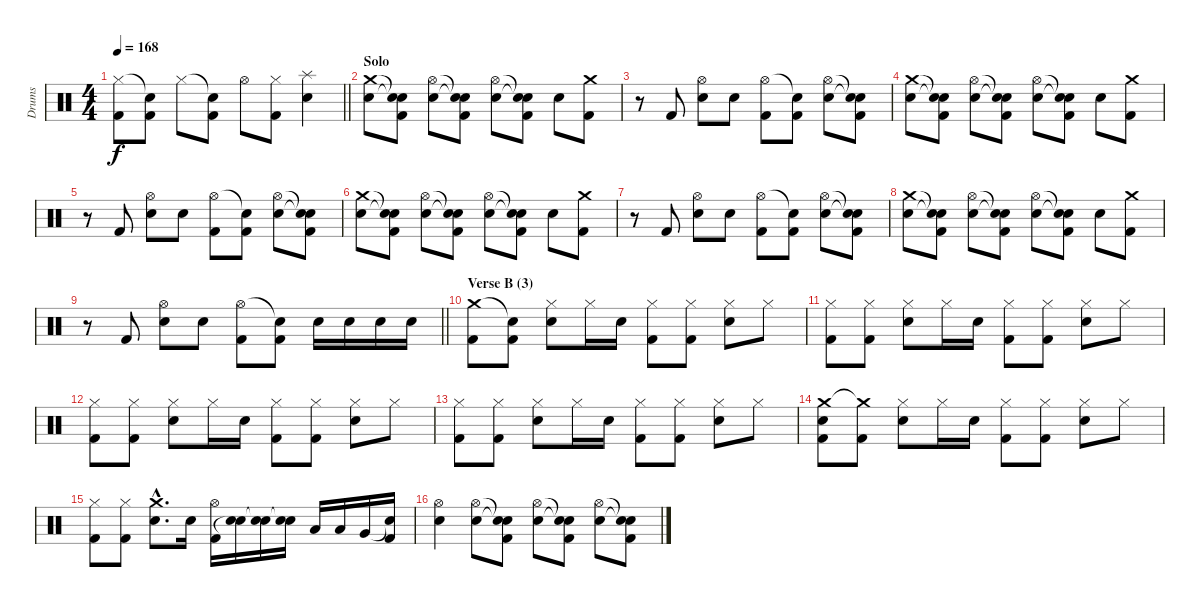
\track ("Drums" "Drums") {instrument percussion}
\staff {score}
\articulation defaults
\ts (4 4)
\tempo 168
\clef neutral
\barLineRight lightlight
\ks c
("Hi-Hat (closed)" "Kick (hit) 2").8{dy f} ("Snare (hit)"{t} "Kick (hit) 2").8 "Hi-Hat (closed)".8 ("Snare (hit)"{t} "Kick (hit) 2").8 "Hi-Hat (open)".8 ("Hi-Hat (closed)" "Kick (hit) 2").8 ("Splash (hit)" "Electric Snare (hit)").4 |
\section ("" "Solo")
("Crash medium (hit)" "Electric Snare (hit)").8 ("Snare (hit)"{t} "Snare (hit)"{t} "Kick (hit) 2").8 ("Hi-Hat (open)" "Electric Snare (hit)").8 ("Snare (hit)"{t} "Snare (hit)"{t} "Kick (hit) 2").8 ("Hi-Hat (open)" "Electric Snare (hit)").8 ("Snare (hit)"{t} "Snare (hit)"{t} "Kick (hit) 2").8 "Electric Snare (hit)".8 ("Crash medium (hit)" "Kick (hit) 2").8 |
r.8 "Kick (hit) 2".8 ("Hi-Hat (open)" "Electric Snare (hit)").8 "Electric Snare (hit)".8 ("Hi-Hat (open)" "Kick (hit) 2").8 ("Snare (hit)"{t} "Kick (hit) 2").8 ("Hi-Hat (open)" "Electric Snare (hit)").8 ("Snare (hit)"{t} "Snare (hit)"{t} "Kick (hit) 2").8 |
("Crash medium (hit)" "Electric Snare (hit)").8 ("Snare (hit)"{t} "Snare (hit)"{t} "Kick (hit) 2").8 ("Hi-Hat (open)" "Electric Snare (hit)").8 ("Snare (hit)"{t} "Snare (hit)"{t} "Kick (hit) 2").8 ("Hi-Hat (open)" "Electric Snare (hit)").8 ("Snare (hit)"{t} "Snare (hit)"{t} "Kick (hit) 2").8 "Electric Snare (hit)".8 ("Crash medium (hit)" "Kick (hit) 2").8 |
r.8 "Kick (hit) 2".8 ("Hi-Hat (open)" "Electric Snare (hit)").8 "Electric Snare (hit)".8 ("Hi-Hat (open)" "Kick (hit) 2").8 ("Snare (hit)"{t} "Kick (hit) 2").8 ("Hi-Hat (open)" "Electric Snare (hit)").8 ("Snare (hit)"{t} "Snare (hit)"{t} "Kick (hit) 2").8 |
("Crash medium (hit)" "Electric Snare (hit)").8 ("Snare (hit)"{t} "Snare (hit)"{t} "Kick (hit) 2").8 ("Hi-Hat (open)" "Electric Snare (hit)").8 ("Snare (hit)"{t} "Snare (hit)"{t} "Kick (hit) 2").8 ("Hi-Hat (open)" "Electric Snare (hit)").8 ("Snare (hit)"{t} "Snare (hit)"{t} "Kick (hit) 2").8 "Electric Snare (hit)".8 ("Crash medium (hit)" "Kick (hit) 2").8 |
r.8 "Kick (hit) 2".8 ("Hi-Hat (open)" "Electric Snare (hit)").8 "Electric Snare (hit)".8 ("Hi-Hat (open)" "Kick (hit) 2").8 ("Snare (hit)"{t} "Kick (hit) 2").8 ("Hi-Hat (open)" "Electric Snare (hit)").8 ("Snare (hit)"{t} "Snare (hit)"{t} "Kick (hit) 2").8 |
("Crash medium (hit)" "Electric Snare (hit)").8 ("Snare (hit)"{t} "Snare (hit)"{t} "Kick (hit) 2").8 ("Hi-Hat (open)" "Electric Snare (hit)").8 ("Snare (hit)"{t} "Snare (hit)"{t} "Kick (hit) 2").8 ("Hi-Hat (open)" "Electric Snare (hit)").8 ("Snare (hit)"{t} "Snare (hit)"{t} "Kick (hit) 2").8 "Electric Snare (hit)".8 ("Crash medium (hit)" "Kick (hit) 2").8 |
\barLineRight lightlight
r.8 "Kick (hit) 2".8 ("Hi-Hat (open)" "Electric Snare (hit)").8 "Electric Snare (hit)".8 ("Hi-Hat (open)" "Kick (hit) 2").8 ("Snare (hit)"{t} "Kick (hit) 2").8 "Electric Snare (hit)".16 "Electric Snare (hit)".16 "Electric Snare (hit)".16 "Electric Snare (hit)".16 |
\section ("" "Verse B (3)")
("Crash medium (hit)" "Kick (hit) 2").8 ("Snare (hit)"{t} "Kick (hit) 2").8 ("Hi-Hat (closed)" "Electric Snare (hit)").8 "Hi-Hat (closed)".16 "Electric Snare (hit)".16 ("Hi-Hat (closed)" "Kick (hit) 2").8 ("Hi-Hat (closed)" "Kick (hit) 2").8 ("Hi-Hat (closed)" "Electric Snare (hit)").8 "Hi-Hat (closed)".8 |
("Hi-Hat (closed)" "Kick (hit) 2").8 ("Hi-Hat (closed)" "Kick (hit) 2").8 ("Hi-Hat (closed)" "Electric Snare (hit)").8 "Hi-Hat (closed)".16 "Electric Snare (hit)".16 ("Hi-Hat (closed)" "Kick (hit) 2").8 ("Hi-Hat (closed)" "Kick (hit) 2").8 ("Hi-Hat (closed)" "Electric Snare (hit)").8 "Hi-Hat (closed)".8 |
("Hi-Hat (closed)" "Kick (hit) 2").8 ("Hi-Hat (closed)" "Kick (hit) 2").8 ("Hi-Hat (closed)" "Electric Snare (hit)").8 "Hi-Hat (closed)".16 "Electric Snare (hit)".16 ("Hi-Hat (closed)" "Kick (hit) 2").8 ("Hi-Hat (closed)" "Kick (hit) 2").8 ("Hi-Hat (closed)" "Electric Snare (hit)").8 "Hi-Hat (closed)".8 |
("Hi-Hat (closed)" "Kick (hit) 2").8 ("Hi-Hat (closed)" "Kick (hit) 2").8 ("Hi-Hat (closed)" "Electric Snare (hit)").8 "Hi-Hat (closed)".16 "Electric Snare (hit)".16 ("Hi-Hat (closed)" "Kick (hit) 2").8 ("Hi-Hat (closed)" "Kick (hit) 2").8 ("Hi-Hat (closed)" "Electric Snare (hit)").8 "Hi-Hat (closed)".8 |
("Crash medium (hit)" "Electric Snare (hit)" "Kick (hit) 2").8 ("Crash medium (hit)"{t} "Kick (hit) 2").8 ("Hi-Hat (closed)" "Electric Snare (hit)").8 "Hi-Hat (closed)".16 "Electric Snare (hit)".16 ("Hi-Hat (closed)" "Kick (hit) 2").8 ("Hi-Hat (closed)" "Kick (hit) 2").8 ("Hi-Hat (closed)" "Electric Snare (hit)").8 "Hi-Hat (closed)".8 |
("Hi-Hat (closed)" "Kick (hit) 2").8 ("Hi-Hat (closed)" "Kick (hit) 2").8 ("Crash medium (hit)"{hac} "Electric Snare (hit)"{hac}).8{d} "Electric Snare (hit)".16 ("Hi-Hat (open)" "Kick (hit) 2").16 ("Electric Snare (hit)" "Snare (hit)"{t}).16 ("Electric Snare (hit)" "Snare (hit)"{t}).16 ("Electric Snare (hit)" "Snare (hit)"{t}).16 "Low Tom (hit)".16 "Low Tom (hit)".16 "Very Low Tom (hit)".16 ("Snare (hit)"{t} "Kick (hit) 2").16 |
("Hi-Hat (open)" "Electric Snare (hit)").4 ("Hi-Hat (open)" "Electric Snare (hit)").8 ("Snare (hit)"{t} "Snare (hit)"{t} "Kick (hit) 2").8 ("Hi-Hat (open)" "Electric Snare (hit)").8 ("Snare (hit)"{t} "Snare (hit)"{t} "Kick (hit) 2").8 ("Hi-Hat (open)" "Electric Snare (hit)").8 ("Snare (hit)"{t} "Snare (hit)"{t} "Kick (hit) 2").8
